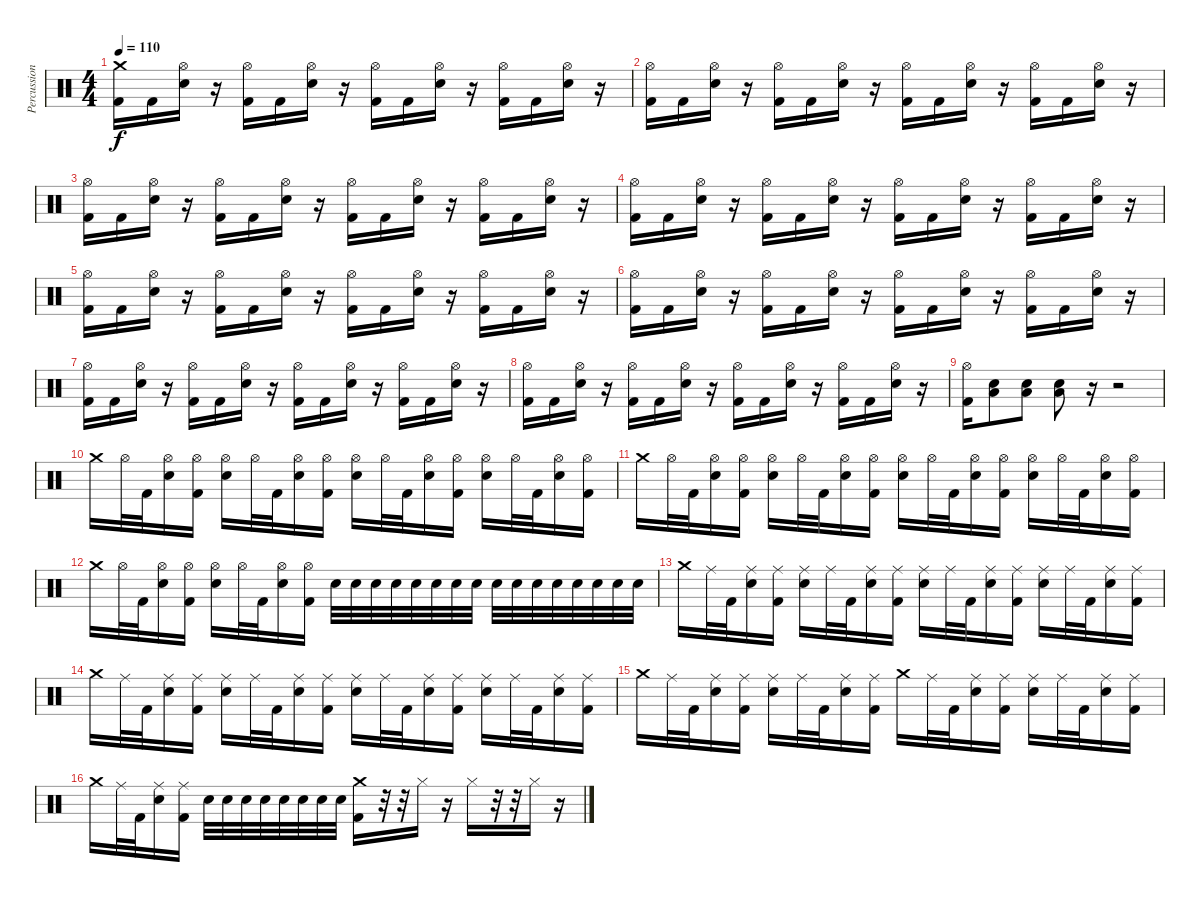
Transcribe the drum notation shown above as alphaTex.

\track ("Percussion" "Percussion") {instrument percussion}
\staff {score}
\articulation defaults
\ts (4 4)
\tempo 110
\clef neutral
\ks c
("Crash medium (hit)" "Kick (hit) 2").16{dy f} "Kick (hit) 2".16 ("Hi-Hat (open)" "Electric Snare (hit)").16 r.16 ("Hi-Hat (open)" "Kick (hit) 2").16 "Kick (hit) 2".16 ("Hi-Hat (open)" "Electric Snare (hit)").16 r.16 ("Hi-Hat (open)" "Kick (hit) 2").16 "Kick (hit) 2".16 ("Hi-Hat (open)" "Electric Snare (hit)").16 r.16 ("Hi-Hat (open)" "Kick (hit) 2").16 "Kick (hit) 2".16 ("Hi-Hat (open)" "Electric Snare (hit)").16 r.16 |
("Hi-Hat (open)" "Kick (hit) 2").16 "Kick (hit) 2".16 ("Hi-Hat (open)" "Electric Snare (hit)").16 r.16 ("Hi-Hat (open)" "Kick (hit) 2").16 "Kick (hit) 2".16 ("Hi-Hat (open)" "Electric Snare (hit)").16 r.16 ("Hi-Hat (open)" "Kick (hit) 2").16 "Kick (hit) 2".16 ("Hi-Hat (open)" "Electric Snare (hit)").16 r.16 ("Hi-Hat (open)" "Kick (hit) 2").16 "Kick (hit) 2".16 ("Hi-Hat (open)" "Electric Snare (hit)").16 r.16 |
("Hi-Hat (open)" "Kick (hit) 2").16 "Kick (hit) 2".16 ("Hi-Hat (open)" "Electric Snare (hit)").16 r.16 ("Hi-Hat (open)" "Kick (hit) 2").16 "Kick (hit) 2".16 ("Hi-Hat (open)" "Electric Snare (hit)").16 r.16 ("Hi-Hat (open)" "Kick (hit) 2").16 "Kick (hit) 2".16 ("Hi-Hat (open)" "Electric Snare (hit)").16 r.16 ("Hi-Hat (open)" "Kick (hit) 2").16 "Kick (hit) 2".16 ("Hi-Hat (open)" "Electric Snare (hit)").16 r.16 |
("Hi-Hat (open)" "Kick (hit) 2").16 "Kick (hit) 2".16 ("Hi-Hat (open)" "Electric Snare (hit)").16 r.16 ("Hi-Hat (open)" "Kick (hit) 2").16 "Kick (hit) 2".16 ("Hi-Hat (open)" "Electric Snare (hit)").16 r.16 ("Hi-Hat (open)" "Kick (hit) 2").16 "Kick (hit) 2".16 ("Hi-Hat (open)" "Electric Snare (hit)").16 r.16 ("Hi-Hat (open)" "Kick (hit) 2").16 "Kick (hit) 2".16 ("Hi-Hat (open)" "Electric Snare (hit)").16 r.16 |
("Hi-Hat (open)" "Kick (hit) 2").16 "Kick (hit) 2".16 ("Hi-Hat (open)" "Electric Snare (hit)").16 r.16 ("Hi-Hat (open)" "Kick (hit) 2").16 "Kick (hit) 2".16 ("Hi-Hat (open)" "Electric Snare (hit)").16 r.16 ("Hi-Hat (open)" "Kick (hit) 2").16 "Kick (hit) 2".16 ("Hi-Hat (open)" "Electric Snare (hit)").16 r.16 ("Hi-Hat (open)" "Kick (hit) 2").16 "Kick (hit) 2".16 ("Hi-Hat (open)" "Electric Snare (hit)").16 r.16 |
("Hi-Hat (open)" "Kick (hit) 2").16 "Kick (hit) 2".16 ("Hi-Hat (open)" "Electric Snare (hit)").16 r.16 ("Hi-Hat (open)" "Kick (hit) 2").16 "Kick (hit) 2".16 ("Hi-Hat (open)" "Electric Snare (hit)").16 r.16 ("Hi-Hat (open)" "Kick (hit) 2").16 "Kick (hit) 2".16 ("Hi-Hat (open)" "Electric Snare (hit)").16 r.16 ("Hi-Hat (open)" "Kick (hit) 2").16 "Kick (hit) 2".16 ("Hi-Hat (open)" "Electric Snare (hit)").16 r.16 |
("Hi-Hat (open)" "Kick (hit) 2").16 "Kick (hit) 2".16 ("Hi-Hat (open)" "Electric Snare (hit)").16 r.16 ("Hi-Hat (open)" "Kick (hit) 2").16 "Kick (hit) 2".16 ("Hi-Hat (open)" "Electric Snare (hit)").16 r.16 ("Hi-Hat (open)" "Kick (hit) 2").16 "Kick (hit) 2".16 ("Hi-Hat (open)" "Electric Snare (hit)").16 r.16 ("Hi-Hat (open)" "Kick (hit) 2").16 "Kick (hit) 2".16 ("Hi-Hat (open)" "Electric Snare (hit)").16 r.16 |
("Hi-Hat (open)" "Kick (hit) 2").16 "Kick (hit) 2".16 ("Hi-Hat (open)" "Electric Snare (hit)").16 r.16 ("Hi-Hat (open)" "Kick (hit) 2").16 "Kick (hit) 2".16 ("Hi-Hat (open)" "Electric Snare (hit)").16 r.16 ("Hi-Hat (open)" "Kick (hit) 2").16 "Kick (hit) 2".16 ("Hi-Hat (open)" "Electric Snare (hit)").16 r.16 ("Hi-Hat (open)" "Kick (hit) 2").16 "Kick (hit) 2".16 ("Hi-Hat (open)" "Electric Snare (hit)").16 r.16 |
("Hi-Hat (open)" "Kick (hit) 2").16 ("Electric Snare (hit)" "Low Floor Tom (hit)").8 ("Electric Snare (hit)" "Low Floor Tom (hit)").8 ("Electric Snare (hit)" "Low Floor Tom (hit)").8 r.16 r.2 |
"Crash medium (hit)".16 "Hi-Hat (open)".32 "Kick (hit) 2".32 ("Hi-Hat (open)" "Electric Snare (hit)").16 ("Hi-Hat (open)" "Kick (hit) 2").16 ("Hi-Hat (open)" "Electric Snare (hit)").16 "Hi-Hat (open)".32 "Kick (hit) 2".32 ("Hi-Hat (open)" "Electric Snare (hit)").16 ("Hi-Hat (open)" "Kick (hit) 2").16 ("Hi-Hat (open)" "Electric Snare (hit)").16 "Hi-Hat (open)".32 "Kick (hit) 2".32 ("Hi-Hat (open)" "Electric Snare (hit)").16 ("Hi-Hat (open)" "Kick (hit) 2").16 ("Hi-Hat (open)" "Electric Snare (hit)").16 "Hi-Hat (open)".32 "Kick (hit) 2".32 ("Hi-Hat (open)" "Electric Snare (hit)").16 ("Hi-Hat (open)" "Kick (hit) 2").16 |
"Crash medium (hit)".16 "Hi-Hat (open)".32 "Kick (hit) 2".32 ("Hi-Hat (open)" "Electric Snare (hit)").16 ("Hi-Hat (open)" "Kick (hit) 2").16 ("Hi-Hat (open)" "Electric Snare (hit)").16 "Hi-Hat (open)".32 "Kick (hit) 2".32 ("Hi-Hat (open)" "Electric Snare (hit)").16 ("Hi-Hat (open)" "Kick (hit) 2").16 ("Hi-Hat (open)" "Electric Snare (hit)").16 "Hi-Hat (open)".32 "Kick (hit) 2".32 ("Hi-Hat (open)" "Electric Snare (hit)").16 ("Hi-Hat (open)" "Kick (hit) 2").16 ("Hi-Hat (open)" "Electric Snare (hit)").16 "Hi-Hat (open)".32 "Kick (hit) 2".32 ("Hi-Hat (open)" "Electric Snare (hit)").16 ("Hi-Hat (open)" "Kick (hit) 2").16 |
"Crash medium (hit)".16 "Hi-Hat (open)".32 "Kick (hit) 2".32 ("Hi-Hat (open)" "Electric Snare (hit)").16 ("Hi-Hat (open)" "Kick (hit) 2").16 ("Hi-Hat (open)" "Electric Snare (hit)").16 "Hi-Hat (open)".32 "Kick (hit) 2".32 ("Hi-Hat (open)" "Electric Snare (hit)").16 ("Hi-Hat (open)" "Kick (hit) 2").16 "Electric Snare (hit)".32 "Electric Snare (hit)".32 "Electric Snare (hit)".32 "Electric Snare (hit)".32 "Electric Snare (hit)".32 "Electric Snare (hit)".32 "Electric Snare (hit)".32 "Electric Snare (hit)".32 "Electric Snare (hit)".32 "Electric Snare (hit)".32 "Electric Snare (hit)".32 "Electric Snare (hit)".32 "Electric Snare (hit)".32 "Electric Snare (hit)".32 "Electric Snare (hit)".32 "Electric Snare (hit)".32 |
"Crash medium (hit)".16 "Ride (middle)".32 "Kick (hit) 2".32 ("Ride (middle)" "Electric Snare (hit)").16 ("Ride (middle)" "Kick (hit) 2").16 ("Ride (middle)" "Electric Snare (hit)").16 "Ride (middle)".32 "Kick (hit) 2".32 ("Ride (middle)" "Electric Snare (hit)").16 ("Ride (middle)" "Kick (hit) 2").16 ("Ride (middle)" "Electric Snare (hit)").16 "Ride (middle)".32 "Kick (hit) 2".32 ("Ride (middle)" "Electric Snare (hit)").16 ("Ride (middle)" "Kick (hit) 2").16 ("Ride (middle)" "Electric Snare (hit)").16 "Ride (middle)".32 "Kick (hit) 2".32 ("Ride (middle)" "Electric Snare (hit)").16 ("Ride (middle)" "Kick (hit) 2").16 |
"Crash medium (hit)".16 "Ride (middle)".32 "Kick (hit) 2".32 ("Ride (middle)" "Electric Snare (hit)").16 ("Ride (middle)" "Kick (hit) 2").16 ("Ride (middle)" "Electric Snare (hit)").16 "Ride (middle)".32 "Kick (hit) 2".32 ("Ride (middle)" "Electric Snare (hit)").16 ("Ride (middle)" "Kick (hit) 2").16 ("Ride (middle)" "Electric Snare (hit)").16 "Ride (middle)".32 "Kick (hit) 2".32 ("Ride (middle)" "Electric Snare (hit)").16 ("Ride (middle)" "Kick (hit) 2").16 ("Ride (middle)" "Electric Snare (hit)").16 "Ride (middle)".32 "Kick (hit) 2".32 ("Ride (middle)" "Electric Snare (hit)").16 ("Ride (middle)" "Kick (hit) 2").16 |
"Crash medium (hit)".16 "Ride (middle)".32 "Kick (hit) 2".32 ("Ride (middle)" "Electric Snare (hit)").16 ("Ride (middle)" "Kick (hit) 2").16 ("Ride (middle)" "Electric Snare (hit)").16 "Ride (middle)".32 "Kick (hit) 2".32 ("Ride (middle)" "Electric Snare (hit)").16 ("Ride (middle)" "Kick (hit) 2").16 "Crash medium (hit)".16 "Ride (middle)".32 "Kick (hit) 2".32 ("Ride (middle)" "Electric Snare (hit)").16 ("Ride (middle)" "Kick (hit) 2").16 ("Ride (middle)" "Electric Snare (hit)").16 "Ride (middle)".32 "Kick (hit) 2".32 ("Ride (middle)" "Electric Snare (hit)").16 ("Ride (middle)" "Kick (hit) 2").16 |
"Crash medium (hit)".16 "Ride (middle)".32 "Kick (hit) 2".32 ("Ride (middle)" "Electric Snare (hit)").16 ("Ride (middle)" "Kick (hit) 2").16 "Electric Snare (hit)".32 "Electric Snare (hit)".32 "Electric Snare (hit)".32 "Electric Snare (hit)".32 "Electric Snare (hit)".32 "Electric Snare (hit)".32 "Electric Snare (hit)".32 "Electric Snare (hit)".32 ("Crash medium (hit)" "Kick (hit) 2").16 r.32 r.32 "Hi-Hat (closed)".16 r.16 "Hi-Hat (closed)".16 r.32 r.32 "Hi-Hat (closed)".16 r.16
